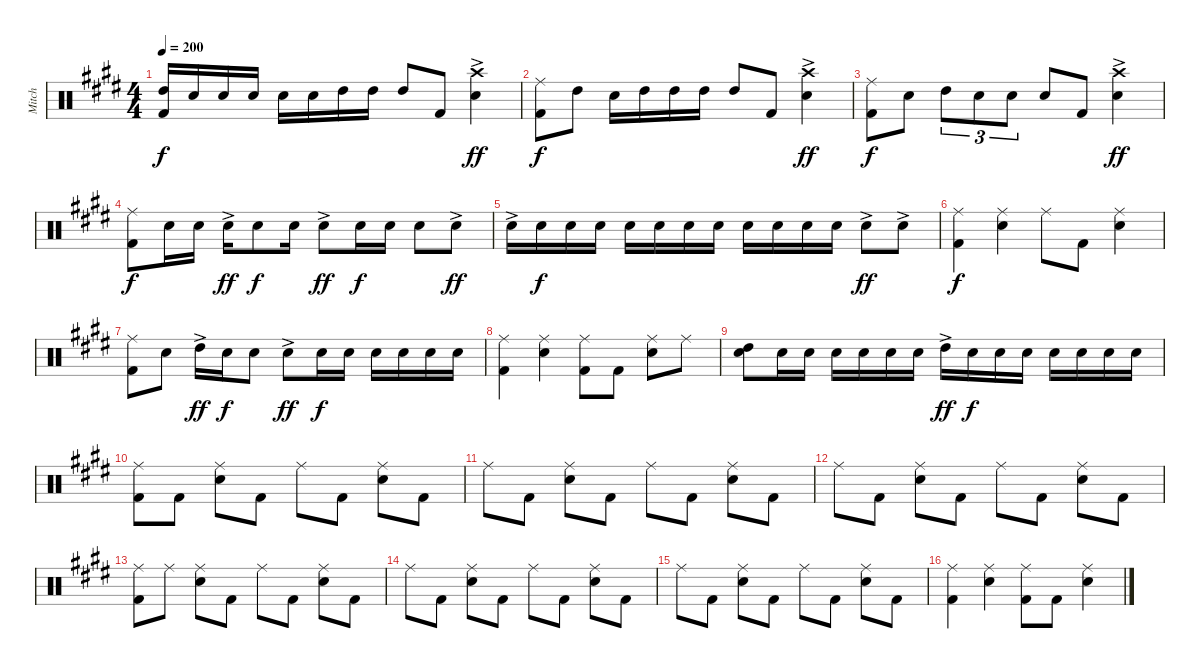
\track ("Mitch" "Mitch") {instrument percussion}
\staff {score}
\articulation defaults
\ts (4 4)
\tempo 200
\clef neutral
\ks e
("High Tom (hit)" "Kick (hit) 2").16{dy f} "Snare (hit) 2".16 "Snare (hit) 2".16 "Snare (hit) 2".16 "Snare (hit) 2".16 "Snare (hit) 2".16 "High Tom (hit)".16 "High Tom (hit)".16 "High Tom (hit)".8 "Kick (hit) 2".8 ("Crash high (hit)"{ac} "Snare (hit) 2").4{dy ff} |
("Ride (middle)" "Kick (hit) 2").8{dy f} "High Tom (hit)".8 "Snare (hit) 2".16 "High Tom (hit)".16 "High Tom (hit)".16 "High Tom (hit)".16 "High Tom (hit)".8 "Kick (hit) 2".8 ("Crash high (hit)"{ac} "Snare (hit) 2").4{dy ff} |
("Ride (middle)" "Kick (hit) 2").8{dy f} "Snare (hit) 2".8 "High Tom (hit)".8{tu (3 2)} "Snare (hit) 2".8{tu (3 2)} "Snare (hit) 2".8{tu (3 2)} "Snare (hit) 2".8 "Kick (hit) 2".8 ("Crash high (hit)"{ac} "Snare (hit) 2").4{dy ff} |
("Ride (middle)" "Kick (hit) 2").8{dy f} "Snare (hit) 2".16 "Snare (hit) 2".16 "Snare (hit) 2"{ac}.16{dy ff} "Snare (hit) 2".8{dy f} "Snare (hit) 2".16 "Snare (hit) 2"{ac}.8{dy ff} "Snare (hit) 2".16{dy f} "Snare (hit) 2".16 "Snare (hit) 2".8 "Snare (hit) 2"{ac}.8{dy ff} |
"Snare (hit) 2"{ac}.16 "Snare (hit) 2".16{dy f} "Snare (hit) 2".16 "Snare (hit) 2".16 "Snare (hit) 2".16 "Snare (hit) 2".16 "Snare (hit) 2".16 "Snare (hit) 2".16 "Snare (hit) 2".16 "Snare (hit) 2".16 "Snare (hit) 2".16 "Snare (hit) 2".16 "Snare (hit) 2"{ac}.8{dy ff} "Snare (hit) 2"{ac}.8 |
("Ride (middle)" "Kick (hit) 2").4{dy f} ("Ride (middle)" "Snare (hit) 2").4 "Ride (middle)".8 "Kick (hit) 2".8 ("Ride (middle)" "Snare (hit) 2").4 |
("Ride (middle)" "Kick (hit) 2").8 "Snare (hit) 2".8 "High Tom (hit)"{ac}.16{dy ff} "Snare (hit) 2".16{dy f} "Snare (hit) 2".8 "Snare (hit) 2"{ac}.8{dy ff} "Snare (hit) 2".16{dy f} "Snare (hit) 2".16 "Snare (hit) 2".16 "Snare (hit) 2".16 "Snare (hit) 2".16 "Snare (hit) 2".16 |
("Ride (middle)" "Kick (hit) 2").4 ("Ride (middle)" "Snare (hit) 2").4 ("Ride (middle)" "Kick (hit) 2").8 "Kick (hit) 2".8 ("Ride (middle)" "Snare (hit) 2").8 "Ride (middle)".8 |
("High Tom (hit)" "Snare (hit) 2").8 "Snare (hit) 2".16 "Snare (hit) 2".16 "Snare (hit) 2".16 "Snare (hit) 2".16 "Snare (hit) 2".16 "Snare (hit) 2".16 "High Tom (hit)"{ac}.16{dy ff} "Snare (hit) 2".16{dy f} "Snare (hit) 2".16 "Snare (hit) 2".16 "Snare (hit) 2".16 "Snare (hit) 2".16 "Snare (hit) 2".16 "Snare (hit) 2".16 |
("Ride (middle)" "Kick (hit) 2").8 "Kick (hit) 2".8 ("Ride (middle)" "Snare (hit) 2").8 "Kick (hit) 2".8 "Ride (middle)".8 "Kick (hit) 2".8 ("Ride (middle)" "Snare (hit) 2").8 "Kick (hit) 2".8 |
"Ride (middle)".8 "Kick (hit) 2".8 ("Ride (middle)" "Snare (hit) 2").8 "Kick (hit) 2".8 "Ride (middle)".8 "Kick (hit) 2".8 ("Ride (middle)" "Snare (hit) 2").8 "Kick (hit) 2".8 |
"Ride (middle)".8 "Kick (hit) 2".8 ("Ride (middle)" "Snare (hit) 2").8 "Kick (hit) 2".8 "Ride (middle)".8 "Kick (hit) 2".8 ("Ride (middle)" "Snare (hit) 2").8 "Kick (hit) 2".8 |
("Ride (middle)" "Kick (hit) 2").8 "Ride (middle)".8 ("Ride (middle)" "Snare (hit) 2").8 "Kick (hit) 2".8 "Ride (middle)".8 "Kick (hit) 2".8 ("Ride (middle)" "Snare (hit) 2").8 "Kick (hit) 2".8 |
"Ride (middle)".8 "Kick (hit) 2".8 ("Ride (middle)" "Snare (hit) 2").8 "Kick (hit) 2".8 "Ride (middle)".8 "Kick (hit) 2".8 ("Ride (middle)" "Snare (hit) 2").8 "Kick (hit) 2".8 |
"Ride (middle)".8 "Kick (hit) 2".8 ("Ride (middle)" "Snare (hit) 2").8 "Kick (hit) 2".8 "Ride (middle)".8 "Kick (hit) 2".8 ("Ride (middle)" "Snare (hit) 2").8 "Kick (hit) 2".8 |
("Ride (middle)" "Kick (hit) 2").4 ("Ride (middle)" "Snare (hit) 2").4 ("Ride (middle)" "Kick (hit) 2").8 "Kick (hit) 2".8 ("Ride (middle)" "Snare (hit) 2").4
